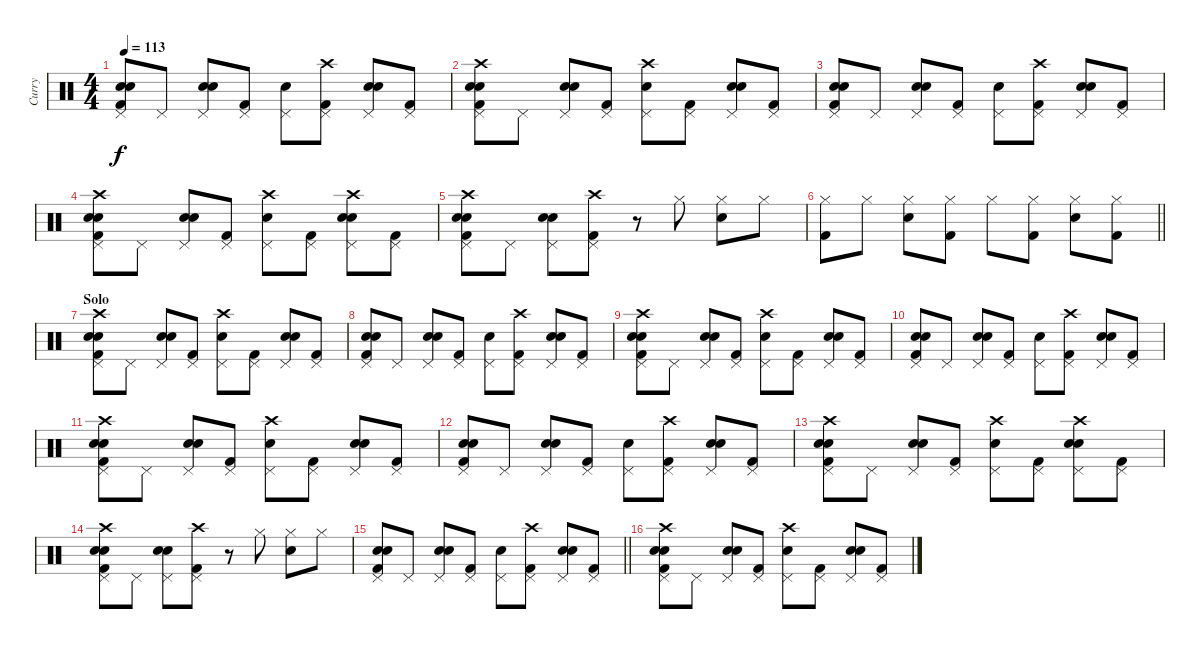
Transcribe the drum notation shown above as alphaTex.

\track ("Curry" "Curry") {instrument percussion}
\staff {score}
\articulation defaults
\ts (4 4)
\tempo 113
\clef neutral
\ks c
("Pedal Hi-Hat (hit)" "Kick (hit) 2" "Electric Snare (hit)" "Snare (hit) 2").8{dy f} "Pedal Hi-Hat (hit)".8 ("Pedal Hi-Hat (hit)" "Electric Snare (hit)" "Snare (hit) 2").8 ("Pedal Hi-Hat (hit)" "Kick (hit) 2").8 ("Pedal Hi-Hat (hit)" "Snare (hit) 2").8 ("Pedal Hi-Hat (hit)" "Kick (hit) 2" "Crash high (hit)").8 ("Pedal Hi-Hat (hit)" "Electric Snare (hit)" "Snare (hit) 2").8 ("Pedal Hi-Hat (hit)" "Kick (hit) 2").8 |
("Pedal Hi-Hat (hit)" "Kick (hit) 2" "Electric Snare (hit)" "Snare (hit) 2" "Crash high (hit)").8 "Pedal Hi-Hat (hit)".8 ("Pedal Hi-Hat (hit)" "Electric Snare (hit)" "Snare (hit) 2").8 ("Pedal Hi-Hat (hit)" "Kick (hit) 2").8 ("Pedal Hi-Hat (hit)" "Snare (hit) 2" "Crash high (hit)").8 ("Pedal Hi-Hat (hit)" "Kick (hit) 2").8 ("Pedal Hi-Hat (hit)" "Electric Snare (hit)" "Snare (hit) 2").8 ("Pedal Hi-Hat (hit)" "Kick (hit) 2").8 |
("Pedal Hi-Hat (hit)" "Kick (hit) 2" "Electric Snare (hit)" "Snare (hit) 2").8 "Pedal Hi-Hat (hit)".8 ("Pedal Hi-Hat (hit)" "Electric Snare (hit)" "Snare (hit) 2").8 ("Pedal Hi-Hat (hit)" "Kick (hit) 2").8 ("Pedal Hi-Hat (hit)" "Snare (hit) 2").8 ("Pedal Hi-Hat (hit)" "Kick (hit) 2" "Crash high (hit)").8 ("Pedal Hi-Hat (hit)" "Electric Snare (hit)" "Snare (hit) 2").8 ("Pedal Hi-Hat (hit)" "Kick (hit) 2").8 |
("Pedal Hi-Hat (hit)" "Kick (hit) 2" "Electric Snare (hit)" "Snare (hit) 2" "Crash high (hit)").8 "Pedal Hi-Hat (hit)".8 ("Pedal Hi-Hat (hit)" "Electric Snare (hit)" "Snare (hit) 2").8 ("Pedal Hi-Hat (hit)" "Kick (hit) 2").8 ("Pedal Hi-Hat (hit)" "Snare (hit) 2" "Crash high (hit)").8 ("Pedal Hi-Hat (hit)" "Kick (hit) 2").8 ("Pedal Hi-Hat (hit)" "Electric Snare (hit)" "Snare (hit) 2" "Crash high (hit)").8 ("Pedal Hi-Hat (hit)" "Kick (hit) 2").8 |
("Pedal Hi-Hat (hit)" "Kick (hit) 2" "Electric Snare (hit)" "Snare (hit) 2" "Crash high (hit)").8 "Pedal Hi-Hat (hit)".8 ("Pedal Hi-Hat (hit)" "Electric Snare (hit)" "Snare (hit) 2").8 ("Pedal Hi-Hat (hit)" "Kick (hit) 2" "Crash high (hit)").8 r.8 "Hi-Hat (closed)".8 ("Hi-Hat (closed)" "Snare (hit) 2").8 "Hi-Hat (closed)".8 |
\barLineRight lightlight
("Hi-Hat (closed)" "Kick (hit) 2").8 "Hi-Hat (closed)".8 ("Hi-Hat (closed)" "Snare (hit) 2").8 ("Hi-Hat (closed)" "Kick (hit) 2").8 "Hi-Hat (closed)".8 ("Hi-Hat (closed)" "Kick (hit) 2").8 ("Hi-Hat (closed)" "Snare (hit) 2").8 ("Hi-Hat (closed)" "Kick (hit) 2").8 |
\section ("" "Solo")
("Pedal Hi-Hat (hit)" "Kick (hit) 2" "Electric Snare (hit)" "Snare (hit) 2" "Crash high (hit)").8 "Pedal Hi-Hat (hit)".8 ("Pedal Hi-Hat (hit)" "Electric Snare (hit)" "Snare (hit) 2").8 ("Pedal Hi-Hat (hit)" "Kick (hit) 2").8 ("Pedal Hi-Hat (hit)" "Snare (hit) 2" "Crash high (hit)").8 ("Pedal Hi-Hat (hit)" "Kick (hit) 2").8 ("Pedal Hi-Hat (hit)" "Electric Snare (hit)" "Snare (hit) 2").8 ("Pedal Hi-Hat (hit)" "Kick (hit) 2").8 |
("Pedal Hi-Hat (hit)" "Kick (hit) 2" "Electric Snare (hit)" "Snare (hit) 2").8 "Pedal Hi-Hat (hit)".8 ("Pedal Hi-Hat (hit)" "Electric Snare (hit)" "Snare (hit) 2").8 ("Pedal Hi-Hat (hit)" "Kick (hit) 2").8 ("Pedal Hi-Hat (hit)" "Snare (hit) 2").8 ("Pedal Hi-Hat (hit)" "Kick (hit) 2" "Crash high (hit)").8 ("Pedal Hi-Hat (hit)" "Electric Snare (hit)" "Snare (hit) 2").8 ("Pedal Hi-Hat (hit)" "Kick (hit) 2").8 |
("Pedal Hi-Hat (hit)" "Kick (hit) 2" "Electric Snare (hit)" "Snare (hit) 2" "Crash high (hit)").8 "Pedal Hi-Hat (hit)".8 ("Pedal Hi-Hat (hit)" "Electric Snare (hit)" "Snare (hit) 2").8 ("Pedal Hi-Hat (hit)" "Kick (hit) 2").8 ("Pedal Hi-Hat (hit)" "Snare (hit) 2" "Crash high (hit)").8 ("Pedal Hi-Hat (hit)" "Kick (hit) 2").8 ("Pedal Hi-Hat (hit)" "Electric Snare (hit)" "Snare (hit) 2").8 ("Pedal Hi-Hat (hit)" "Kick (hit) 2").8 |
("Pedal Hi-Hat (hit)" "Kick (hit) 2" "Electric Snare (hit)" "Snare (hit) 2").8 "Pedal Hi-Hat (hit)".8 ("Pedal Hi-Hat (hit)" "Electric Snare (hit)" "Snare (hit) 2").8 ("Pedal Hi-Hat (hit)" "Kick (hit) 2").8 ("Pedal Hi-Hat (hit)" "Snare (hit) 2").8 ("Pedal Hi-Hat (hit)" "Kick (hit) 2" "Crash high (hit)").8 ("Pedal Hi-Hat (hit)" "Electric Snare (hit)" "Snare (hit) 2").8 ("Pedal Hi-Hat (hit)" "Kick (hit) 2").8 |
("Pedal Hi-Hat (hit)" "Kick (hit) 2" "Electric Snare (hit)" "Snare (hit) 2" "Crash high (hit)").8 "Pedal Hi-Hat (hit)".8 ("Pedal Hi-Hat (hit)" "Electric Snare (hit)" "Snare (hit) 2").8 ("Pedal Hi-Hat (hit)" "Kick (hit) 2").8 ("Pedal Hi-Hat (hit)" "Snare (hit) 2" "Crash high (hit)").8 ("Pedal Hi-Hat (hit)" "Kick (hit) 2").8 ("Pedal Hi-Hat (hit)" "Electric Snare (hit)" "Snare (hit) 2").8 ("Pedal Hi-Hat (hit)" "Kick (hit) 2").8 |
("Pedal Hi-Hat (hit)" "Kick (hit) 2" "Electric Snare (hit)" "Snare (hit) 2").8 "Pedal Hi-Hat (hit)".8 ("Pedal Hi-Hat (hit)" "Electric Snare (hit)" "Snare (hit) 2").8 ("Pedal Hi-Hat (hit)" "Kick (hit) 2").8 ("Pedal Hi-Hat (hit)" "Snare (hit) 2").8 ("Pedal Hi-Hat (hit)" "Kick (hit) 2" "Crash high (hit)").8 ("Pedal Hi-Hat (hit)" "Electric Snare (hit)" "Snare (hit) 2").8 ("Pedal Hi-Hat (hit)" "Kick (hit) 2").8 |
("Pedal Hi-Hat (hit)" "Kick (hit) 2" "Electric Snare (hit)" "Snare (hit) 2" "Crash high (hit)").8 "Pedal Hi-Hat (hit)".8 ("Pedal Hi-Hat (hit)" "Electric Snare (hit)" "Snare (hit) 2").8 ("Pedal Hi-Hat (hit)" "Kick (hit) 2").8 ("Pedal Hi-Hat (hit)" "Snare (hit) 2" "Crash high (hit)").8 ("Pedal Hi-Hat (hit)" "Kick (hit) 2").8 ("Pedal Hi-Hat (hit)" "Electric Snare (hit)" "Snare (hit) 2" "Crash high (hit)").8 ("Pedal Hi-Hat (hit)" "Kick (hit) 2").8 |
("Pedal Hi-Hat (hit)" "Kick (hit) 2" "Electric Snare (hit)" "Snare (hit) 2" "Crash high (hit)").8 "Pedal Hi-Hat (hit)".8 ("Pedal Hi-Hat (hit)" "Electric Snare (hit)" "Snare (hit) 2").8 ("Pedal Hi-Hat (hit)" "Kick (hit) 2" "Crash high (hit)").8 r.8 "Hi-Hat (closed)".8 ("Hi-Hat (closed)" "Snare (hit) 2").8 "Hi-Hat (closed)".8 |
\barLineRight lightlight
("Pedal Hi-Hat (hit)" "Kick (hit) 2" "Electric Snare (hit)" "Snare (hit) 2").8 "Pedal Hi-Hat (hit)".8 ("Pedal Hi-Hat (hit)" "Electric Snare (hit)" "Snare (hit) 2").8 ("Pedal Hi-Hat (hit)" "Kick (hit) 2").8 ("Pedal Hi-Hat (hit)" "Snare (hit) 2").8 ("Pedal Hi-Hat (hit)" "Kick (hit) 2" "Crash high (hit)").8 ("Pedal Hi-Hat (hit)" "Electric Snare (hit)" "Snare (hit) 2").8 ("Pedal Hi-Hat (hit)" "Kick (hit) 2").8 |
("Pedal Hi-Hat (hit)" "Kick (hit) 2" "Electric Snare (hit)" "Snare (hit) 2" "Crash high (hit)").8 "Pedal Hi-Hat (hit)".8 ("Pedal Hi-Hat (hit)" "Electric Snare (hit)" "Snare (hit) 2").8 ("Pedal Hi-Hat (hit)" "Kick (hit) 2").8 ("Pedal Hi-Hat (hit)" "Snare (hit) 2" "Crash high (hit)").8 ("Pedal Hi-Hat (hit)" "Kick (hit) 2").8 ("Pedal Hi-Hat (hit)" "Electric Snare (hit)" "Snare (hit) 2").8 ("Pedal Hi-Hat (hit)" "Kick (hit) 2").8
